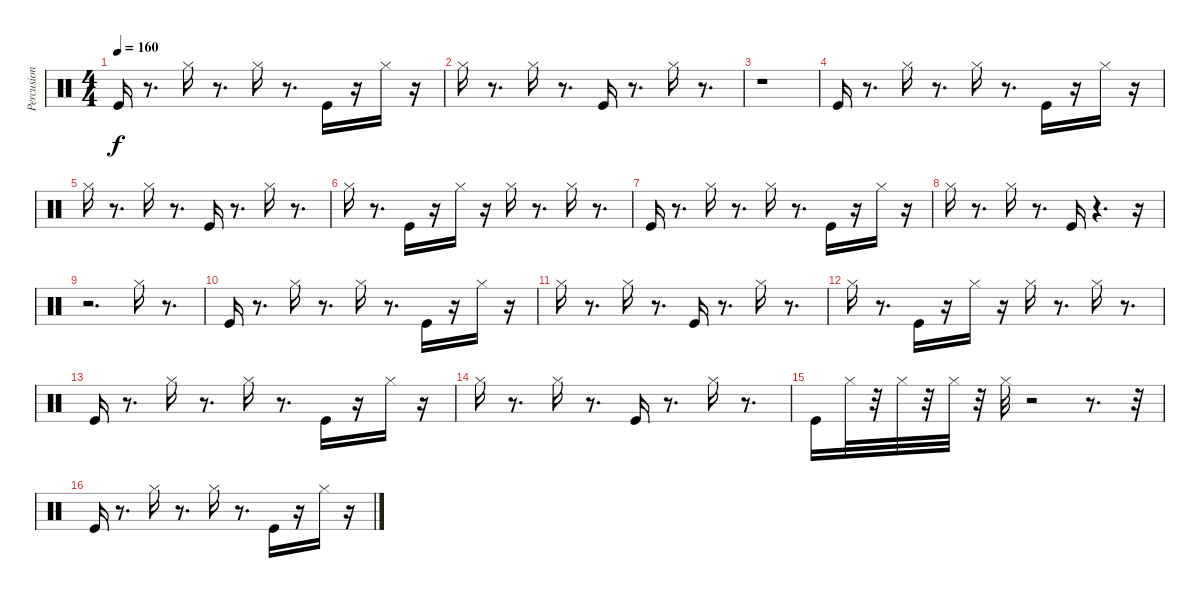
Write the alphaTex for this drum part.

\track ("Percusion" "Percusion") {instrument percussion}
\staff {score}
\articulation defaults
\ts (4 4)
\tempo 160
\clef neutral
\ks c "Kick (hit)".16{dy f}
r.8{d} "Hi-Hat (closed)".16 r.8{d} "Hi-Hat (closed)".16 r.8{d} "Kick (hit)".16 r.16 "Hi-Hat (closed)".16 r.16 |
"Hi-Hat (closed)".16 r.8{d} "Hi-Hat (closed)".16 r.8{d} "Kick (hit)".16 r.8{d} "Hi-Hat (closed)".16 r.8{d} |
r.1 |
"Kick (hit)".16 r.8{d} "Hi-Hat (closed)".16 r.8{d} "Hi-Hat (closed)".16 r.8{d} "Kick (hit)".16 r.16 "Hi-Hat (closed)".16 r.16 |
"Hi-Hat (closed)".16 r.8{d} "Hi-Hat (closed)".16 r.8{d} "Kick (hit)".16 r.8{d} "Hi-Hat (closed)".16 r.8{d} |
"Hi-Hat (closed)".16 r.8{d} "Kick (hit)".16 r.16 "Hi-Hat (closed)".16 r.16 "Hi-Hat (closed)".16 r.8{d} "Hi-Hat (closed)".16 r.8{d} |
"Kick (hit)".16 r.8{d} "Hi-Hat (closed)".16 r.8{d} "Hi-Hat (closed)".16 r.8{d} "Kick (hit)".16 r.16 "Hi-Hat (closed)".16 r.16 |
"Hi-Hat (closed)".16 r.8{d} "Hi-Hat (closed)".16 r.8{d} "Kick (hit)".16 r.4{d} r.16 |
r.2{d} "Hi-Hat (closed)".16 r.8{d} |
"Kick (hit)".16 r.8{d} "Hi-Hat (closed)".16 r.8{d} "Hi-Hat (closed)".16 r.8{d} "Kick (hit)".16 r.16 "Hi-Hat (closed)".16 r.16 |
"Hi-Hat (closed)".16 r.8{d} "Hi-Hat (closed)".16 r.8{d} "Kick (hit)".16 r.8{d} "Hi-Hat (closed)".16 r.8{d} |
"Hi-Hat (closed)".16 r.8{d} "Kick (hit)".16 r.16 "Hi-Hat (closed)".16 r.16 "Hi-Hat (closed)".16 r.8{d} "Hi-Hat (closed)".16 r.8{d} |
"Kick (hit)".16 r.8{d} "Hi-Hat (closed)".16 r.8{d} "Hi-Hat (closed)".16 r.8{d} "Kick (hit)".16 r.16 "Hi-Hat (closed)".16 r.16 |
"Hi-Hat (closed)".16 r.8{d} "Hi-Hat (closed)".16 r.8{d} "Kick (hit)".16 r.8{d} "Hi-Hat (closed)".16 r.8{d} |
"Kick (hit)".16 "Hi-Hat (closed)".32 r.32 "Hi-Hat (closed)".32 r.32 "Hi-Hat (closed)".32 r.32 "Hi-Hat (closed)".32 r.2 r.8{d} r.32 |
"Kick (hit)".16 r.8{d} "Hi-Hat (closed)".16 r.8{d} "Hi-Hat (closed)".16 r.8{d} "Kick (hit)".16 r.16 "Hi-Hat (closed)".16 r.16
